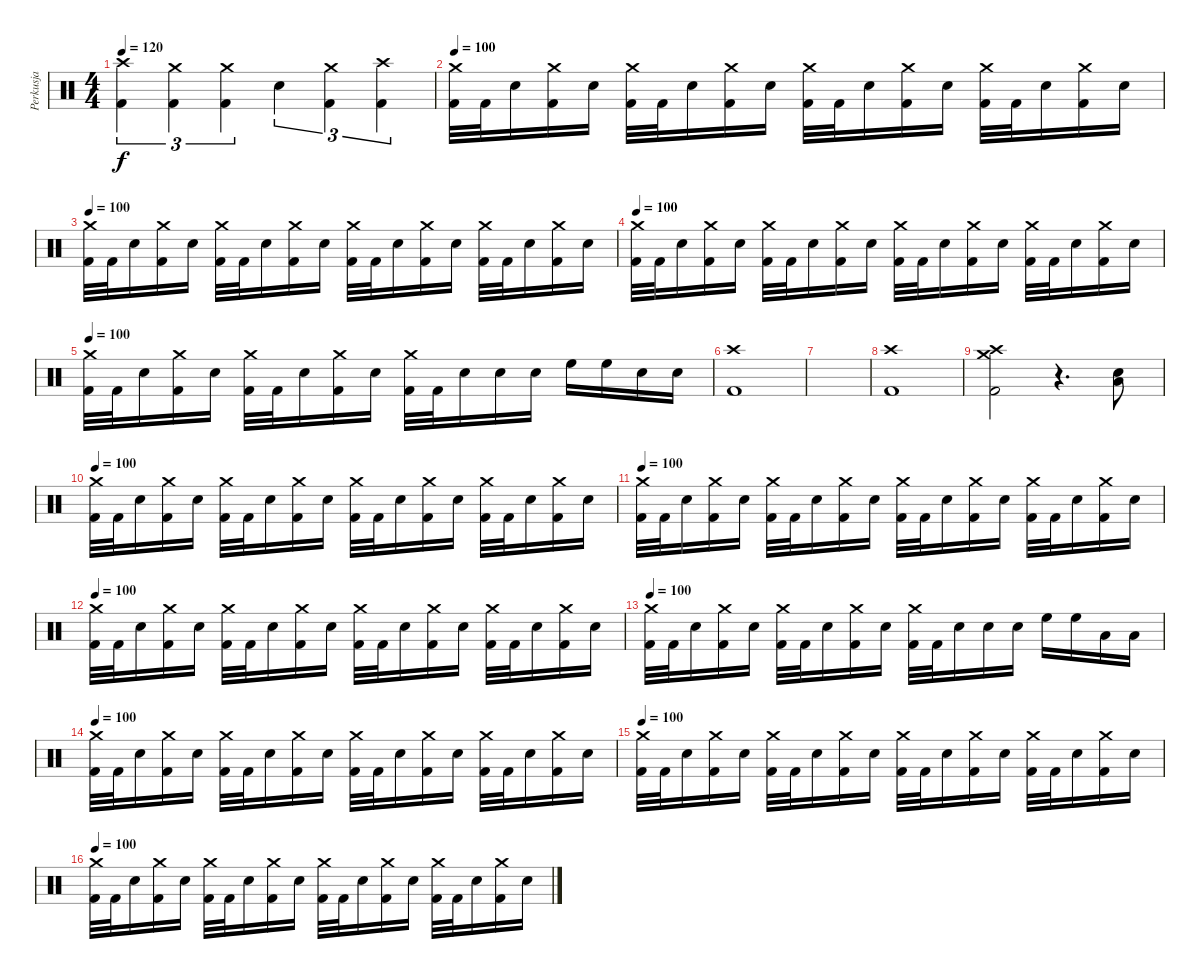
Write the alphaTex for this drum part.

\track ("Perkusja" "Perkusja") {instrument percussion}
\staff {score}
\articulation defaults
\ts (4 4)
\tempo 120
\clef neutral
\ks c
("Crash high (hit)" "Kick (hit) 2").4{tu (3 2) dy f} ("Crash medium (hit)" "Kick (hit) 2").4{tu (3 2)} ("Crash medium (hit)" "Kick (hit) 2").4{tu (3 2)} "Electric Snare (hit)".4{tu (3 2)} ("Crash medium (hit)" "Kick (hit) 2").4{tu (3 2)} ("Crash high (hit)" "Kick (hit) 2").4{tu (3 2)} |
\tempo 100
("Crash medium (hit)" "Kick (hit) 2").32 "Kick (hit) 2".32 "Electric Snare (hit)".16 ("Crash medium (hit)" "Kick (hit) 2").16 "Electric Snare (hit)".16 ("Crash medium (hit)" "Kick (hit) 2").32 "Kick (hit) 2".32 "Electric Snare (hit)".16 ("Crash medium (hit)" "Kick (hit) 2").16 "Electric Snare (hit)".16 ("Crash medium (hit)" "Kick (hit) 2").32 "Kick (hit) 2".32 "Electric Snare (hit)".16 ("Crash medium (hit)" "Kick (hit) 2").16 "Electric Snare (hit)".16 ("Crash medium (hit)" "Kick (hit) 2").32 "Kick (hit) 2".32 "Electric Snare (hit)".16 ("Crash medium (hit)" "Kick (hit) 2").16 "Electric Snare (hit)".16 |
\tempo 100
("Crash medium (hit)" "Kick (hit) 2").32 "Kick (hit) 2".32 "Electric Snare (hit)".16 ("Crash medium (hit)" "Kick (hit) 2").16 "Electric Snare (hit)".16 ("Crash medium (hit)" "Kick (hit) 2").32 "Kick (hit) 2".32 "Electric Snare (hit)".16 ("Crash medium (hit)" "Kick (hit) 2").16 "Electric Snare (hit)".16 ("Crash medium (hit)" "Kick (hit) 2").32 "Kick (hit) 2".32 "Electric Snare (hit)".16 ("Crash medium (hit)" "Kick (hit) 2").16 "Electric Snare (hit)".16 ("Crash medium (hit)" "Kick (hit) 2").32 "Kick (hit) 2".32 "Electric Snare (hit)".16 ("Crash medium (hit)" "Kick (hit) 2").16 "Electric Snare (hit)".16 |
\tempo 100
("Crash medium (hit)" "Kick (hit) 2").32 "Kick (hit) 2".32 "Electric Snare (hit)".16 ("Crash medium (hit)" "Kick (hit) 2").16 "Electric Snare (hit)".16 ("Crash medium (hit)" "Kick (hit) 2").32 "Kick (hit) 2".32 "Electric Snare (hit)".16 ("Crash medium (hit)" "Kick (hit) 2").16 "Electric Snare (hit)".16 ("Crash medium (hit)" "Kick (hit) 2").32 "Kick (hit) 2".32 "Electric Snare (hit)".16 ("Crash medium (hit)" "Kick (hit) 2").16 "Electric Snare (hit)".16 ("Crash medium (hit)" "Kick (hit) 2").32 "Kick (hit) 2".32 "Electric Snare (hit)".16 ("Crash medium (hit)" "Kick (hit) 2").16 "Electric Snare (hit)".16 |
\tempo 100
("Crash medium (hit)" "Kick (hit) 2").32 "Kick (hit) 2".32 "Electric Snare (hit)".16 ("Crash medium (hit)" "Kick (hit) 2").16 "Electric Snare (hit)".16 ("Crash medium (hit)" "Kick (hit) 2").32 "Kick (hit) 2".32 "Electric Snare (hit)".16 ("Crash medium (hit)" "Kick (hit) 2").16 "Electric Snare (hit)".16 ("Crash medium (hit)" "Kick (hit) 2").32 "Kick (hit) 2".32 "Electric Snare (hit)".16 "Electric Snare (hit)".16 "Electric Snare (hit)".16 "High Floor Tom (hit)".16 "High Floor Tom (hit)".16 "Electric Snare (hit)".16 "Electric Snare (hit)".16 |
("Crash high (hit)" "Kick (hit) 2").1 |
|
("Crash high (hit)" "Kick (hit) 2").1 |
("Crash medium (hit)" "Crash high (hit)" "Kick (hit) 2").2 r.4{d} ("Electric Snare (hit)" "Low Floor Tom (hit)").8 |
\tempo 100
("Crash medium (hit)" "Kick (hit) 2").32 "Kick (hit) 2".32 "Electric Snare (hit)".16 ("Crash medium (hit)" "Kick (hit) 2").16 "Electric Snare (hit)".16 ("Crash medium (hit)" "Kick (hit) 2").32 "Kick (hit) 2".32 "Electric Snare (hit)".16 ("Crash medium (hit)" "Kick (hit) 2").16 "Electric Snare (hit)".16 ("Crash medium (hit)" "Kick (hit) 2").32 "Kick (hit) 2".32 "Electric Snare (hit)".16 ("Crash medium (hit)" "Kick (hit) 2").16 "Electric Snare (hit)".16 ("Crash medium (hit)" "Kick (hit) 2").32 "Kick (hit) 2".32 "Electric Snare (hit)".16 ("Crash medium (hit)" "Kick (hit) 2").16 "Electric Snare (hit)".16 |
\tempo 100
("Crash medium (hit)" "Kick (hit) 2").32 "Kick (hit) 2".32 "Electric Snare (hit)".16 ("Crash medium (hit)" "Kick (hit) 2").16 "Electric Snare (hit)".16 ("Crash medium (hit)" "Kick (hit) 2").32 "Kick (hit) 2".32 "Electric Snare (hit)".16 ("Crash medium (hit)" "Kick (hit) 2").16 "Electric Snare (hit)".16 ("Crash medium (hit)" "Kick (hit) 2").32 "Kick (hit) 2".32 "Electric Snare (hit)".16 ("Crash medium (hit)" "Kick (hit) 2").16 "Electric Snare (hit)".16 ("Crash medium (hit)" "Kick (hit) 2").32 "Kick (hit) 2".32 "Electric Snare (hit)".16 ("Crash medium (hit)" "Kick (hit) 2").16 "Electric Snare (hit)".16 |
\tempo 100
("Crash medium (hit)" "Kick (hit) 2").32 "Kick (hit) 2".32 "Electric Snare (hit)".16 ("Crash medium (hit)" "Kick (hit) 2").16 "Electric Snare (hit)".16 ("Crash medium (hit)" "Kick (hit) 2").32 "Kick (hit) 2".32 "Electric Snare (hit)".16 ("Crash medium (hit)" "Kick (hit) 2").16 "Electric Snare (hit)".16 ("Crash medium (hit)" "Kick (hit) 2").32 "Kick (hit) 2".32 "Electric Snare (hit)".16 ("Crash medium (hit)" "Kick (hit) 2").16 "Electric Snare (hit)".16 ("Crash medium (hit)" "Kick (hit) 2").32 "Kick (hit) 2".32 "Electric Snare (hit)".16 ("Crash medium (hit)" "Kick (hit) 2").16 "Electric Snare (hit)".16 |
\tempo 100
("Crash medium (hit)" "Kick (hit) 2").32 "Kick (hit) 2".32 "Electric Snare (hit)".16 ("Crash medium (hit)" "Kick (hit) 2").16 "Electric Snare (hit)".16 ("Crash medium (hit)" "Kick (hit) 2").32 "Kick (hit) 2".32 "Electric Snare (hit)".16 ("Crash medium (hit)" "Kick (hit) 2").16 "Electric Snare (hit)".16 ("Crash medium (hit)" "Kick (hit) 2").32 "Kick (hit) 2".32 "Electric Snare (hit)".16 "Electric Snare (hit)".16 "Electric Snare (hit)".16 "High Floor Tom (hit)".16 "High Floor Tom (hit)".16 "Low Tom (hit)".16 "Low Tom (hit)".16 |
\tempo 100
("Crash medium (hit)" "Kick (hit) 2").32 "Kick (hit) 2".32 "Electric Snare (hit)".16 ("Crash medium (hit)" "Kick (hit) 2").16 "Electric Snare (hit)".16 ("Crash medium (hit)" "Kick (hit) 2").32 "Kick (hit) 2".32 "Electric Snare (hit)".16 ("Crash medium (hit)" "Kick (hit) 2").16 "Electric Snare (hit)".16 ("Crash medium (hit)" "Kick (hit) 2").32 "Kick (hit) 2".32 "Electric Snare (hit)".16 ("Crash medium (hit)" "Kick (hit) 2").16 "Electric Snare (hit)".16 ("Crash medium (hit)" "Kick (hit) 2").32 "Kick (hit) 2".32 "Electric Snare (hit)".16 ("Crash medium (hit)" "Kick (hit) 2").16 "Electric Snare (hit)".16 |
\tempo 100
("Crash medium (hit)" "Kick (hit) 2").32 "Kick (hit) 2".32 "Electric Snare (hit)".16 ("Crash medium (hit)" "Kick (hit) 2").16 "Electric Snare (hit)".16 ("Crash medium (hit)" "Kick (hit) 2").32 "Kick (hit) 2".32 "Electric Snare (hit)".16 ("Crash medium (hit)" "Kick (hit) 2").16 "Electric Snare (hit)".16 ("Crash medium (hit)" "Kick (hit) 2").32 "Kick (hit) 2".32 "Electric Snare (hit)".16 ("Crash medium (hit)" "Kick (hit) 2").16 "Electric Snare (hit)".16 ("Crash medium (hit)" "Kick (hit) 2").32 "Kick (hit) 2".32 "Electric Snare (hit)".16 ("Crash medium (hit)" "Kick (hit) 2").16 "Electric Snare (hit)".16 |
\tempo 100
("Crash medium (hit)" "Kick (hit) 2").32 "Kick (hit) 2".32 "Electric Snare (hit)".16 ("Crash medium (hit)" "Kick (hit) 2").16 "Electric Snare (hit)".16 ("Crash medium (hit)" "Kick (hit) 2").32 "Kick (hit) 2".32 "Electric Snare (hit)".16 ("Crash medium (hit)" "Kick (hit) 2").16 "Electric Snare (hit)".16 ("Crash medium (hit)" "Kick (hit) 2").32 "Kick (hit) 2".32 "Electric Snare (hit)".16 ("Crash medium (hit)" "Kick (hit) 2").16 "Electric Snare (hit)".16 ("Crash medium (hit)" "Kick (hit) 2").32 "Kick (hit) 2".32 "Electric Snare (hit)".16 ("Crash medium (hit)" "Kick (hit) 2").16 "Electric Snare (hit)".16
